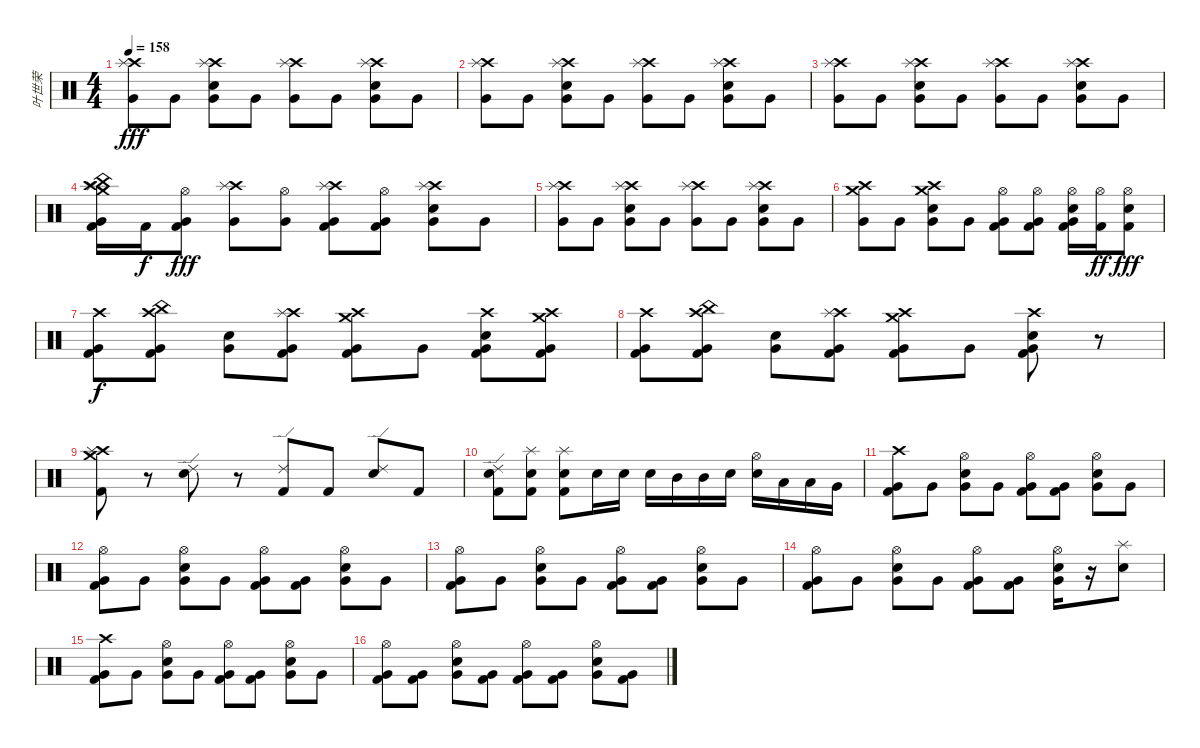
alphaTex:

\track ("叶世荣" "叶世荣") {instrument percussion}
\staff {score}
\articulation defaults
\ts (4 4)
\tempo 158
\clef neutral
\ks c
("Crash high (hit)" "Splash (hit)" "Very Low Tom (hit)").8{dy fff} "Very Low Tom (hit)".8 ("Crash high (hit)" "Splash (hit)" "Snare (hit) 2" "Very Low Tom (hit)").8 "Very Low Tom (hit)".8 ("Crash high (hit)" "Splash (hit)" "Very Low Tom (hit)").8 "Very Low Tom (hit)".8 ("Crash high (hit)" "Splash (hit)" "Snare (hit) 2" "Very Low Tom (hit)").8 "Very Low Tom (hit)".8 |
("Crash high (hit)" "Splash (hit)" "Very Low Tom (hit)").8 "Very Low Tom (hit)".8 ("Crash high (hit)" "Splash (hit)" "Snare (hit) 2" "Very Low Tom (hit)").8 "Very Low Tom (hit)".8 ("Crash high (hit)" "Splash (hit)" "Very Low Tom (hit)").8 "Very Low Tom (hit)".8 ("Crash high (hit)" "Splash (hit)" "Snare (hit) 2" "Very Low Tom (hit)").8 "Very Low Tom (hit)".8 |
("Crash high (hit)" "Splash (hit)" "Very Low Tom (hit)").8 "Very Low Tom (hit)".8 ("Crash high (hit)" "Splash (hit)" "Snare (hit) 2" "Very Low Tom (hit)").8 "Very Low Tom (hit)".8 ("Crash high (hit)" "Splash (hit)" "Very Low Tom (hit)").8 "Very Low Tom (hit)".8 ("Crash high (hit)" "Splash (hit)" "Snare (hit) 2" "Very Low Tom (hit)").8 "Very Low Tom (hit)".8 |
("Crash high (hit)" "Splash (hit)" "Crash medium (hit)" "China (hit)" "Very Low Tom (hit)" "Kick (hit) 2").16 "Kick (hit) 2".16{dy f} ("Hi-Hat (open)" "Very Low Tom (hit)" "Kick (hit) 2").8{dy fff} ("Crash high (hit)" "Splash (hit)" "Very Low Tom (hit)").8 ("Hi-Hat (open)" "Very Low Tom (hit)").8 ("Crash high (hit)" "Splash (hit)" "Very Low Tom (hit)" "Kick (hit) 2").8 ("Hi-Hat (open)" "Very Low Tom (hit)" "Kick (hit) 2").8 ("Crash high (hit)" "Splash (hit)" "Snare (hit) 2" "Very Low Tom (hit)").8 "Very Low Tom (hit)".8 |
("Crash high (hit)" "Splash (hit)" "Very Low Tom (hit)").8 "Very Low Tom (hit)".8 ("Crash high (hit)" "Splash (hit)" "Snare (hit) 2" "Very Low Tom (hit)").8 "Very Low Tom (hit)".8 ("Crash high (hit)" "Splash (hit)" "Very Low Tom (hit)").8 "Very Low Tom (hit)".8 ("Crash high (hit)" "Splash (hit)" "Snare (hit) 2" "Very Low Tom (hit)").8 "Very Low Tom (hit)".8 |
("Crash high (hit)" "Crash medium (hit)" "Very Low Tom (hit)").8 "Very Low Tom (hit)".8 ("Crash high (hit)" "Crash medium (hit)" "Snare (hit) 2" "Very Low Tom (hit)").8 "Very Low Tom (hit)".8 ("Hi-Hat (open)" "Kick (hit) 2" "Very Low Tom (hit)").8 ("Hi-Hat (open)" "Kick (hit) 2" "Very Low Tom (hit)").8 ("Hi-Hat (open)" "Snare (hit) 2" "Kick (hit) 2" "Very Low Tom (hit)").16 ("Hi-Hat (open)" "Kick (hit) 2").16{dy ff} ("Hi-Hat (open)" "Snare (hit) 2" "Kick (hit) 2").8{dy fff} |
("Crash high (hit)" "Kick (hit) 2" "Very Low Tom (hit)").8{dy f} ("Crash high (hit)" "China (hit)" "Kick (hit) 2" "Very Low Tom (hit)").8 ("Snare (hit) 2" "Very Low Tom (hit)").8 ("Crash high (hit)" "Splash (hit)" "Kick (hit) 2" "Very Low Tom (hit)").8 ("Crash high (hit)" "Crash medium (hit)" "Kick (hit) 2" "Very Low Tom (hit)").8 "Very Low Tom (hit)".8 ("Crash high (hit)" "Snare (hit) 2" "Kick (hit) 2" "Very Low Tom (hit)").8 ("Crash high (hit)" "Crash medium (hit)" "Kick (hit) 2" "Very Low Tom (hit)").8 |
("Crash high (hit)" "Kick (hit) 2" "Very Low Tom (hit)").8 ("Crash high (hit)" "China (hit)" "Kick (hit) 2" "Very Low Tom (hit)").8 ("Snare (hit) 2" "Very Low Tom (hit)").8 ("Crash high (hit)" "Splash (hit)" "Kick (hit) 2" "Very Low Tom (hit)").8 ("Crash high (hit)" "Crash medium (hit)" "Kick (hit) 2" "Very Low Tom (hit)").8 "Very Low Tom (hit)".8 ("Crash high (hit)" "Snare (hit) 2" "Kick (hit) 2" "Very Low Tom (hit)").8 r.8 |
("Crash high (hit)" "Splash (hit)" "Crash medium (hit)" "Kick (hit) 2").8 r.8 ("Ride (edge) 2" "Snare (hit) 2").8 r.8 ("Ride (edge) 2" "Kick (hit) 2").8 "Kick (hit) 2".8 ("Ride (edge) 2" "Snare (hit) 2").8 "Kick (hit) 2".8 |
("Ride (edge) 2" "Snare (hit) 2" "Kick (hit) 2").8 ("Splash (hit)" "Snare (hit) 2" "Kick (hit) 2").8 ("Splash (hit)" "Snare (hit) 2" "Kick (hit) 2").8 "Snare (hit) 2".16 "Snare (hit) 2".16 "Snare (hit) 2".16 "Mid Tom (hit)".16 "Mid Tom (hit)".16 "Snare (hit) 2".16 ("Hi-Hat (open)" "Snare (hit) 2").16 "Low Tom (hit)".16 "Low Tom (hit)".16 "Very Low Tom (hit)".16 |
("Crash high (hit)" "Kick (hit) 2" "Very Low Tom (hit)").8 "Very Low Tom (hit)".8 ("Hi-Hat (open)" "Snare (hit) 2" "Very Low Tom (hit)").8 "Very Low Tom (hit)".8 ("Hi-Hat (open)" "Kick (hit) 2" "Very Low Tom (hit)").8 ("Kick (hit) 2" "Very Low Tom (hit)").8 ("Hi-Hat (open)" "Snare (hit) 2" "Very Low Tom (hit)").8 "Very Low Tom (hit)".8 |
("Hi-Hat (open)" "Kick (hit) 2" "Very Low Tom (hit)").8 "Very Low Tom (hit)".8 ("Hi-Hat (open)" "Snare (hit) 2" "Very Low Tom (hit)").8 "Very Low Tom (hit)".8 ("Hi-Hat (open)" "Kick (hit) 2" "Very Low Tom (hit)").8 ("Kick (hit) 2" "Very Low Tom (hit)").8 ("Hi-Hat (open)" "Snare (hit) 2" "Very Low Tom (hit)").8 "Very Low Tom (hit)".8 |
("Hi-Hat (open)" "Kick (hit) 2" "Very Low Tom (hit)").8 "Very Low Tom (hit)".8 ("Hi-Hat (open)" "Snare (hit) 2" "Very Low Tom (hit)").8 "Very Low Tom (hit)".8 ("Hi-Hat (open)" "Kick (hit) 2" "Very Low Tom (hit)").8 ("Kick (hit) 2" "Very Low Tom (hit)").8 ("Hi-Hat (open)" "Snare (hit) 2" "Very Low Tom (hit)").8 "Very Low Tom (hit)".8 |
("Hi-Hat (open)" "Kick (hit) 2" "Very Low Tom (hit)").8 "Very Low Tom (hit)".8 ("Hi-Hat (open)" "Snare (hit) 2" "Very Low Tom (hit)").8 "Very Low Tom (hit)".8 ("Hi-Hat (open)" "Kick (hit) 2" "Very Low Tom (hit)").8 ("Kick (hit) 2" "Very Low Tom (hit)").8 ("Hi-Hat (open)" "Snare (hit) 2" "Very Low Tom (hit)").16 r.16 ("Splash (hit)" "Snare (hit) 2").8 |
("Crash high (hit)" "Kick (hit) 2" "Very Low Tom (hit)").8 "Very Low Tom (hit)".8 ("Hi-Hat (open)" "Snare (hit) 2" "Very Low Tom (hit)").8 "Very Low Tom (hit)".8 ("Hi-Hat (open)" "Kick (hit) 2" "Very Low Tom (hit)").8 ("Kick (hit) 2" "Very Low Tom (hit)").8 ("Hi-Hat (open)" "Snare (hit) 2" "Very Low Tom (hit)").8 "Very Low Tom (hit)".8 |
("Hi-Hat (open)" "Kick (hit) 2" "Very Low Tom (hit)").8 ("Kick (hit) 2" "Very Low Tom (hit)").8 ("Hi-Hat (open)" "Snare (hit) 2" "Very Low Tom (hit)").8 ("Kick (hit) 2" "Very Low Tom (hit)").8 ("Hi-Hat (open)" "Kick (hit) 2" "Very Low Tom (hit)").8 ("Kick (hit) 2" "Very Low Tom (hit)").8 ("Hi-Hat (open)" "Snare (hit) 2" "Very Low Tom (hit)").8 ("Kick (hit) 2" "Very Low Tom (hit)").8
